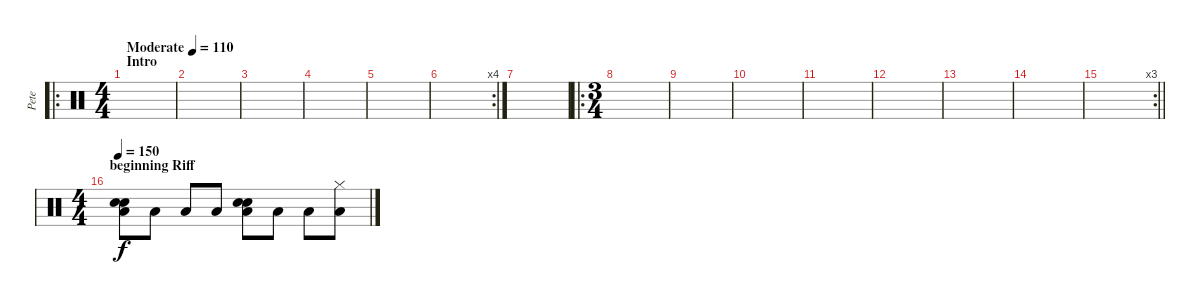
\track ("Pete" "Pete") {instrument percussion}
\staff {score}
\articulation defaults
\ro
\ts (4 4)
\section ("" "Intro")
\tempo (110 "Moderate")
\clef neutral
\ks c
|
|
|
|
|
\rc 4
|
|
\ro
\ts (3 4)
|
|
|
|
|
|
|
\rc 3
\barLineRight lightlight
|
\ts (4 4)
\section ("" "beginning Riff")
\tempo 150
("Electric Snare (hit)" "Low Floor Tom (hit)" "Electric Snare (hit)").8 "Low Floor Tom (hit)".8 "Low Floor Tom (hit)".8 "Low Floor Tom (hit)".8 ("Electric Snare (hit)" "Low Floor Tom (hit)" "Electric Snare (hit)").8 "Low Floor Tom (hit)".8 "Low Floor Tom (hit)".8 ("Hi-Hat (closed)" "Low Floor Tom (hit)").8
